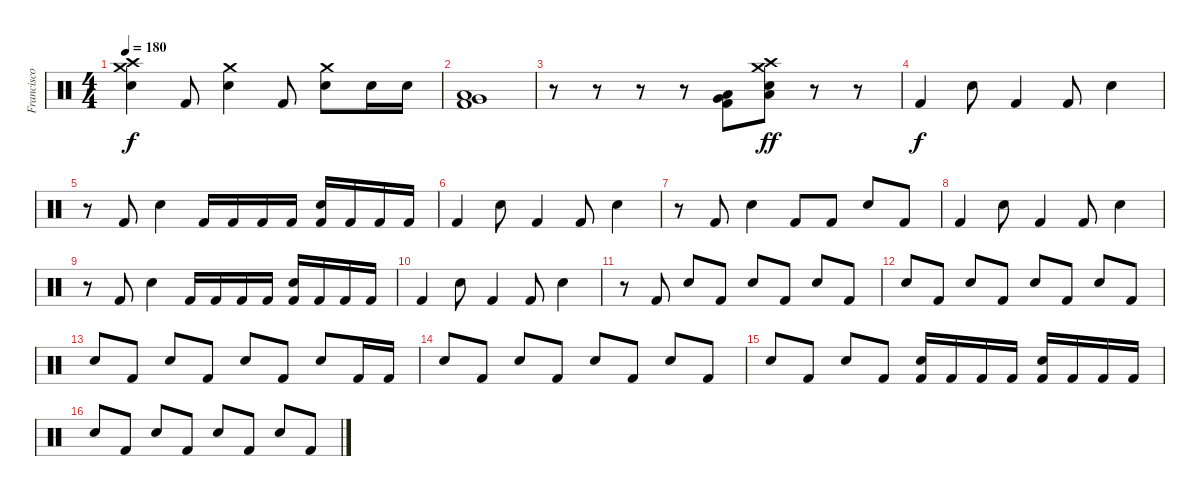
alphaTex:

\track ("Francisco Izquierdo (Percusión)" "Francisco ") {instrument percussion}
\staff {score}
\articulation defaults
\ts (4 4)
\tempo 180
\clef neutral
\ks c
("Crash high (hit)" "Crash medium (hit)" "Electric Snare (hit)").4{dy f} "Kick (hit) 2".8 ("Crash medium (hit)" "Electric Snare (hit)").4 "Kick (hit) 2".8 ("Crash medium (hit)" "Electric Snare (hit)").8 "Electric Snare (hit)".16 "Electric Snare (hit)".16 |
("Low Tom (hit)" "Very Low Tom (hit)" "Kick (hit) 2").1 |
r.8 r.8 r.8 r.8 ("Very Low Tom (hit)" "Low Floor Tom (hit)" "Kick (hit) 2").8 ("Crash high (hit)" "Crash medium (hit)" "Low Floor Tom (hit)" "Electric Snare (hit)").8{dy ff} r.8 r.8 |
"Kick (hit) 2".4{dy f} "Electric Snare (hit)".8 "Kick (hit) 2".4 "Kick (hit) 2".8 "Electric Snare (hit)".4 |
r.8 "Kick (hit) 2".8 "Electric Snare (hit)".4 "Kick (hit) 2".16 "Kick (hit) 2".16 "Kick (hit) 2".16 "Kick (hit) 2".16 ("Electric Snare (hit)" "Kick (hit) 2").16 "Kick (hit) 2".16 "Kick (hit) 2".16 "Kick (hit) 2".16 |
"Kick (hit) 2".4 "Electric Snare (hit)".8 "Kick (hit) 2".4 "Kick (hit) 2".8 "Electric Snare (hit)".4 |
r.8 "Kick (hit) 2".8 "Electric Snare (hit)".4 "Kick (hit) 2".8 "Kick (hit) 2".8 "Electric Snare (hit)".8 "Kick (hit) 2".8 |
"Kick (hit) 2".4 "Electric Snare (hit)".8 "Kick (hit) 2".4 "Kick (hit) 2".8 "Electric Snare (hit)".4 |
r.8 "Kick (hit) 2".8 "Electric Snare (hit)".4 "Kick (hit) 2".16 "Kick (hit) 2".16 "Kick (hit) 2".16 "Kick (hit) 2".16 ("Electric Snare (hit)" "Kick (hit) 2").16 "Kick (hit) 2".16 "Kick (hit) 2".16 "Kick (hit) 2".16 |
"Kick (hit) 2".4 "Electric Snare (hit)".8 "Kick (hit) 2".4 "Kick (hit) 2".8 "Electric Snare (hit)".4 |
r.8 "Kick (hit) 2".8 "Electric Snare (hit)".8 "Kick (hit) 2".8 "Electric Snare (hit)".8 "Kick (hit) 2".8 "Electric Snare (hit)".8 "Kick (hit) 2".8 |
"Electric Snare (hit)".8 "Kick (hit) 2".8 "Electric Snare (hit)".8 "Kick (hit) 2".8 "Electric Snare (hit)".8 "Kick (hit) 2".8 "Electric Snare (hit)".8 "Kick (hit) 2".8 |
"Electric Snare (hit)".8 "Kick (hit) 2".8 "Electric Snare (hit)".8 "Kick (hit) 2".8 "Electric Snare (hit)".8 "Kick (hit) 2".8 "Electric Snare (hit)".8 "Kick (hit) 2".16 "Kick (hit) 2".16 |
"Electric Snare (hit)".8 "Kick (hit) 2".8 "Electric Snare (hit)".8 "Kick (hit) 2".8 "Electric Snare (hit)".8 "Kick (hit) 2".8 "Electric Snare (hit)".8 "Kick (hit) 2".8 |
"Electric Snare (hit)".8 "Kick (hit) 2".8 "Electric Snare (hit)".8 "Kick (hit) 2".8 ("Electric Snare (hit)" "Kick (hit) 2").16 "Kick (hit) 2".16 "Kick (hit) 2".16 "Kick (hit) 2".16 ("Electric Snare (hit)" "Kick (hit) 2").16 "Kick (hit) 2".16 "Kick (hit) 2".16 "Kick (hit) 2".16 |
"Electric Snare (hit)".8 "Kick (hit) 2".8 "Electric Snare (hit)".8 "Kick (hit) 2".8 "Electric Snare (hit)".8 "Kick (hit) 2".8 "Electric Snare (hit)".8 "Kick (hit) 2".8
